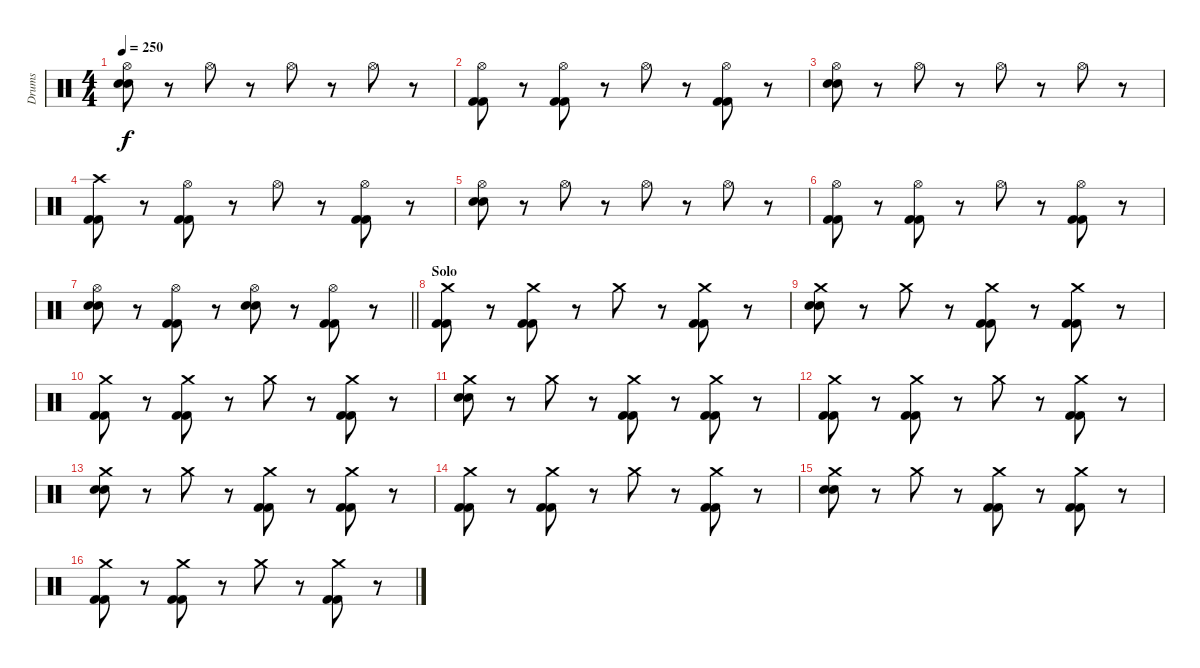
\track ("Drums" "Drums") {instrument percussion}
\staff {score}
\articulation defaults
\ts (4 4)
\tempo 250
\clef neutral
\ks c
("Electric Snare (hit)" "Electric Snare (hit)" "Hi-Hat (open)").8{dy f} r.8 "Hi-Hat (open)".8 r.8 "Hi-Hat (open)".8 r.8 "Hi-Hat (open)".8 r.8 |
("Kick (hit) 2" "Kick (hit) 2" "Hi-Hat (open)").8 r.8 ("Kick (hit) 2" "Kick (hit) 2" "Hi-Hat (open)").8 r.8 "Hi-Hat (open)".8 r.8 ("Kick (hit) 2" "Kick (hit) 2" "Hi-Hat (open)").8 r.8 |
("Electric Snare (hit)" "Electric Snare (hit)" "Hi-Hat (open)").8 r.8 "Hi-Hat (open)".8 r.8 "Hi-Hat (open)".8 r.8 "Hi-Hat (open)".8 r.8 |
("Kick (hit) 2" "Kick (hit) 2" "Crash high (hit)").8 r.8 ("Kick (hit) 2" "Kick (hit) 2" "Hi-Hat (open)").8 r.8 "Hi-Hat (open)".8 r.8 ("Kick (hit) 2" "Kick (hit) 2" "Hi-Hat (open)").8 r.8 |
("Electric Snare (hit)" "Electric Snare (hit)" "Hi-Hat (open)").8 r.8 "Hi-Hat (open)".8 r.8 "Hi-Hat (open)".8 r.8 "Hi-Hat (open)".8 r.8 |
("Kick (hit) 2" "Kick (hit) 2" "Hi-Hat (open)").8 r.8 ("Kick (hit) 2" "Kick (hit) 2" "Hi-Hat (open)").8 r.8 "Hi-Hat (open)".8 r.8 ("Kick (hit) 2" "Kick (hit) 2" "Hi-Hat (open)").8 r.8 |
\barLineRight lightlight
("Electric Snare (hit)" "Electric Snare (hit)" "Hi-Hat (open)").8 r.8 ("Kick (hit) 2" "Kick (hit) 2" "Hi-Hat (open)").8 r.8 ("Electric Snare (hit)" "Electric Snare (hit)" "Hi-Hat (open)").8 r.8 ("Kick (hit) 2" "Kick (hit) 2" "Hi-Hat (open)").8 r.8 |
\section ("" "Solo")
("Kick (hit) 2" "Kick (hit) 2" "Crash medium (hit)").8 r.8 ("Kick (hit) 2" "Kick (hit) 2" "Crash medium (hit)").8 r.8 "Crash medium (hit)".8 r.8 ("Kick (hit) 2" "Kick (hit) 2" "Crash medium (hit)").8 r.8 |
("Electric Snare (hit)" "Electric Snare (hit)" "Crash medium (hit)").8 r.8 "Crash medium (hit)".8 r.8 ("Kick (hit) 2" "Kick (hit) 2" "Crash medium (hit)").8 r.8 ("Kick (hit) 2" "Kick (hit) 2" "Crash medium (hit)").8 r.8 |
("Kick (hit) 2" "Kick (hit) 2" "Crash medium (hit)").8 r.8 ("Kick (hit) 2" "Kick (hit) 2" "Crash medium (hit)").8 r.8 "Crash medium (hit)".8 r.8 ("Kick (hit) 2" "Kick (hit) 2" "Crash medium (hit)").8 r.8 |
("Electric Snare (hit)" "Electric Snare (hit)" "Crash medium (hit)").8 r.8 "Crash medium (hit)".8 r.8 ("Kick (hit) 2" "Kick (hit) 2" "Crash medium (hit)").8 r.8 ("Kick (hit) 2" "Kick (hit) 2" "Crash medium (hit)").8 r.8 |
("Kick (hit) 2" "Kick (hit) 2" "Crash medium (hit)").8 r.8 ("Kick (hit) 2" "Kick (hit) 2" "Crash medium (hit)").8 r.8 "Crash medium (hit)".8 r.8 ("Kick (hit) 2" "Kick (hit) 2" "Crash medium (hit)").8 r.8 |
("Electric Snare (hit)" "Electric Snare (hit)" "Crash medium (hit)").8 r.8 "Crash medium (hit)".8 r.8 ("Kick (hit) 2" "Kick (hit) 2" "Crash medium (hit)").8 r.8 ("Kick (hit) 2" "Kick (hit) 2" "Crash medium (hit)").8 r.8 |
("Kick (hit) 2" "Kick (hit) 2" "Crash medium (hit)").8 r.8 ("Kick (hit) 2" "Kick (hit) 2" "Crash medium (hit)").8 r.8 "Crash medium (hit)".8 r.8 ("Kick (hit) 2" "Kick (hit) 2" "Crash medium (hit)").8 r.8 |
("Electric Snare (hit)" "Electric Snare (hit)" "Crash medium (hit)").8 r.8 "Crash medium (hit)".8 r.8 ("Kick (hit) 2" "Kick (hit) 2" "Crash medium (hit)").8 r.8 ("Kick (hit) 2" "Kick (hit) 2" "Crash medium (hit)").8 r.8 |
("Kick (hit) 2" "Kick (hit) 2" "Crash medium (hit)").8 r.8 ("Kick (hit) 2" "Kick (hit) 2" "Crash medium (hit)").8 r.8 "Crash medium (hit)".8 r.8 ("Kick (hit) 2" "Kick (hit) 2" "Crash medium (hit)").8 r.8
